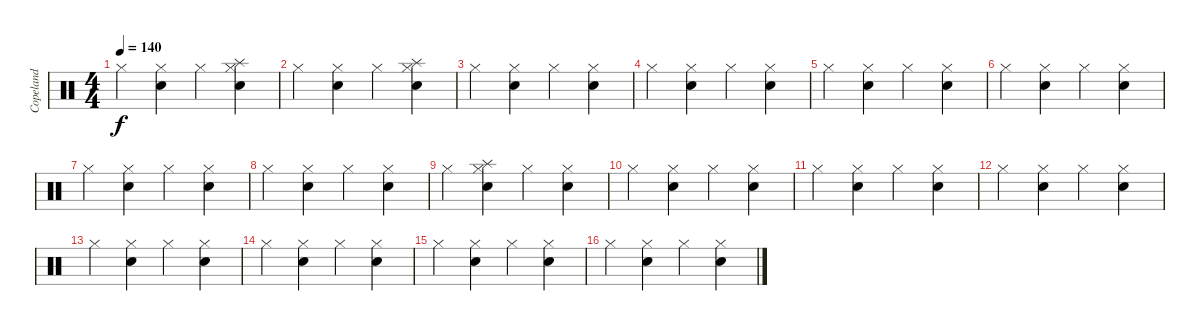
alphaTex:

\track ("Copeland" "Copeland") {instrument percussion}
\staff {score}
\articulation defaults
\ts (4 4)
\tempo 140
\clef neutral
\ks c "Hi-Hat (closed)".4{dy f}
("Hi-Hat (closed)" "Electric Snare (hit)").4 "Hi-Hat (closed)".4 ("Hi-Hat (closed)" "Splash (hit)" "Electric Snare (hit)").4 |
"Hi-Hat (closed)".4 ("Hi-Hat (closed)" "Electric Snare (hit)").4 "Hi-Hat (closed)".4 ("Hi-Hat (closed)" "Splash (hit)" "Electric Snare (hit)").4 |
"Hi-Hat (closed)".4 ("Hi-Hat (closed)" "Electric Snare (hit)").4 "Hi-Hat (closed)".4 ("Hi-Hat (closed)" "Electric Snare (hit)").4 |
"Hi-Hat (closed)".4 ("Hi-Hat (closed)" "Electric Snare (hit)").4 "Hi-Hat (closed)".4 ("Hi-Hat (closed)" "Electric Snare (hit)").4 |
"Hi-Hat (closed)".4 ("Hi-Hat (closed)" "Electric Snare (hit)").4 "Hi-Hat (closed)".4 ("Hi-Hat (closed)" "Electric Snare (hit)").4 |
"Hi-Hat (closed)".4 ("Hi-Hat (closed)" "Electric Snare (hit)").4 "Hi-Hat (closed)".4 ("Hi-Hat (closed)" "Electric Snare (hit)").4 |
"Hi-Hat (closed)".4 ("Hi-Hat (closed)" "Electric Snare (hit)").4 "Hi-Hat (closed)".4 ("Hi-Hat (closed)" "Electric Snare (hit)").4 |
"Hi-Hat (closed)".4 ("Hi-Hat (closed)" "Electric Snare (hit)").4 "Hi-Hat (closed)".4 ("Hi-Hat (closed)" "Electric Snare (hit)").4 |
"Hi-Hat (closed)".4 ("Hi-Hat (closed)" "Splash (hit)" "Electric Snare (hit)").4 "Hi-Hat (closed)".4 ("Hi-Hat (closed)" "Electric Snare (hit)").4 |
"Hi-Hat (closed)".4 ("Hi-Hat (closed)" "Electric Snare (hit)").4 "Hi-Hat (closed)".4 ("Hi-Hat (closed)" "Electric Snare (hit)").4 |
"Hi-Hat (closed)".4 ("Hi-Hat (closed)" "Electric Snare (hit)").4 "Hi-Hat (closed)".4 ("Hi-Hat (closed)" "Electric Snare (hit)").4 |
"Hi-Hat (closed)".4 ("Hi-Hat (closed)" "Electric Snare (hit)").4 "Hi-Hat (closed)".4 ("Hi-Hat (closed)" "Electric Snare (hit)").4 |
"Hi-Hat (closed)".4 ("Hi-Hat (closed)" "Electric Snare (hit)").4 "Hi-Hat (closed)".4 ("Hi-Hat (closed)" "Electric Snare (hit)").4 |
"Hi-Hat (closed)".4 ("Hi-Hat (closed)" "Electric Snare (hit)").4 "Hi-Hat (closed)".4 ("Hi-Hat (closed)" "Electric Snare (hit)").4 |
"Hi-Hat (closed)".4 ("Hi-Hat (closed)" "Electric Snare (hit)").4 "Hi-Hat (closed)".4 ("Hi-Hat (closed)" "Electric Snare (hit)").4 |
"Hi-Hat (closed)".4 ("Hi-Hat (closed)" "Electric Snare (hit)").4 "Hi-Hat (closed)".4 ("Hi-Hat (closed)" "Electric Snare (hit)").4
